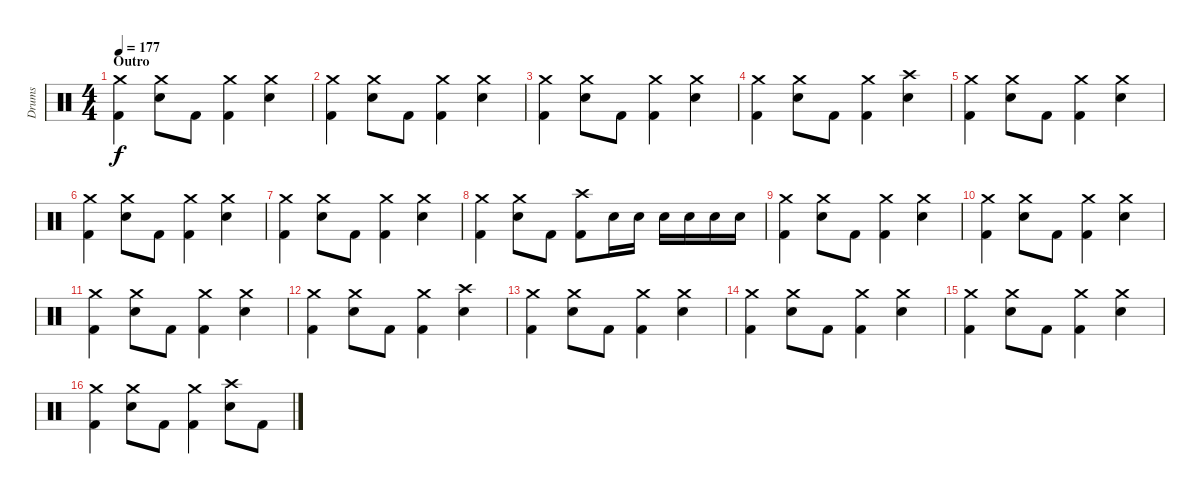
\track ("Drums" "Drums") {instrument percussion}
\staff {score}
\articulation defaults
\ts (4 4)
\section ("" "Outro")
\tempo 177
\clef neutral
\ks c
("Crash medium (hit)" "Kick (hit) 2").4{dy f} ("Crash medium (hit)" "Electric Snare (hit)").8 "Kick (hit) 2".8 ("Crash medium (hit)" "Kick (hit) 2").4 ("Crash medium (hit)" "Electric Snare (hit)").4 |
("Crash medium (hit)" "Kick (hit) 2").4 ("Crash medium (hit)" "Electric Snare (hit)").8 "Kick (hit) 2".8 ("Crash medium (hit)" "Kick (hit) 2").4 ("Crash medium (hit)" "Electric Snare (hit)").4 |
("Crash medium (hit)" "Kick (hit) 2").4 ("Crash medium (hit)" "Electric Snare (hit)").8 "Kick (hit) 2".8 ("Crash medium (hit)" "Kick (hit) 2").4 ("Crash medium (hit)" "Electric Snare (hit)").4 |
("Crash medium (hit)" "Kick (hit) 2").4 ("Crash medium (hit)" "Electric Snare (hit)").8 "Kick (hit) 2".8 ("Crash medium (hit)" "Kick (hit) 2").4 ("Crash high (hit)" "Electric Snare (hit)").4 |
("Crash medium (hit)" "Kick (hit) 2").4 ("Crash medium (hit)" "Electric Snare (hit)").8 "Kick (hit) 2".8 ("Crash medium (hit)" "Kick (hit) 2").4 ("Crash medium (hit)" "Electric Snare (hit)").4 |
("Crash medium (hit)" "Kick (hit) 2").4 ("Crash medium (hit)" "Electric Snare (hit)").8 "Kick (hit) 2".8 ("Crash medium (hit)" "Kick (hit) 2").4 ("Crash medium (hit)" "Electric Snare (hit)").4 |
("Crash medium (hit)" "Kick (hit) 2").4 ("Crash medium (hit)" "Electric Snare (hit)").8 "Kick (hit) 2".8 ("Crash medium (hit)" "Kick (hit) 2").4 ("Crash medium (hit)" "Electric Snare (hit)").4 |
("Crash medium (hit)" "Kick (hit) 2").4 ("Crash medium (hit)" "Electric Snare (hit)").8 "Kick (hit) 2".8 ("Crash high (hit)" "Kick (hit) 2").8 "Electric Snare (hit)".16 "Electric Snare (hit)".16 "Electric Snare (hit)".16 "Electric Snare (hit)".16 "Electric Snare (hit)".16 "Electric Snare (hit)".16 |
("Crash medium (hit)" "Kick (hit) 2").4 ("Crash medium (hit)" "Electric Snare (hit)").8 "Kick (hit) 2".8 ("Crash medium (hit)" "Kick (hit) 2").4 ("Crash medium (hit)" "Electric Snare (hit)").4 |
("Crash medium (hit)" "Kick (hit) 2").4 ("Crash medium (hit)" "Electric Snare (hit)").8 "Kick (hit) 2".8 ("Crash medium (hit)" "Kick (hit) 2").4 ("Crash medium (hit)" "Electric Snare (hit)").4 |
("Crash medium (hit)" "Kick (hit) 2").4 ("Crash medium (hit)" "Electric Snare (hit)").8 "Kick (hit) 2".8 ("Crash medium (hit)" "Kick (hit) 2").4 ("Crash medium (hit)" "Electric Snare (hit)").4 |
("Crash medium (hit)" "Kick (hit) 2").4 ("Crash medium (hit)" "Electric Snare (hit)").8 "Kick (hit) 2".8 ("Crash medium (hit)" "Kick (hit) 2").4 ("Crash high (hit)" "Electric Snare (hit)").4 |
("Crash medium (hit)" "Kick (hit) 2").4 ("Crash medium (hit)" "Electric Snare (hit)").8 "Kick (hit) 2".8 ("Crash medium (hit)" "Kick (hit) 2").4 ("Crash medium (hit)" "Electric Snare (hit)").4 |
("Crash medium (hit)" "Kick (hit) 2").4 ("Crash medium (hit)" "Electric Snare (hit)").8 "Kick (hit) 2".8 ("Crash medium (hit)" "Kick (hit) 2").4 ("Crash medium (hit)" "Electric Snare (hit)").4 |
("Crash medium (hit)" "Kick (hit) 2").4 ("Crash medium (hit)" "Electric Snare (hit)").8 "Kick (hit) 2".8 ("Crash medium (hit)" "Kick (hit) 2").4 ("Crash medium (hit)" "Electric Snare (hit)").4 |
("Crash medium (hit)" "Kick (hit) 2").4 ("Crash medium (hit)" "Electric Snare (hit)").8 "Kick (hit) 2".8 ("Crash medium (hit)" "Kick (hit) 2").4 ("Crash high (hit)" "Electric Snare (hit)").8 "Kick (hit) 2".8
